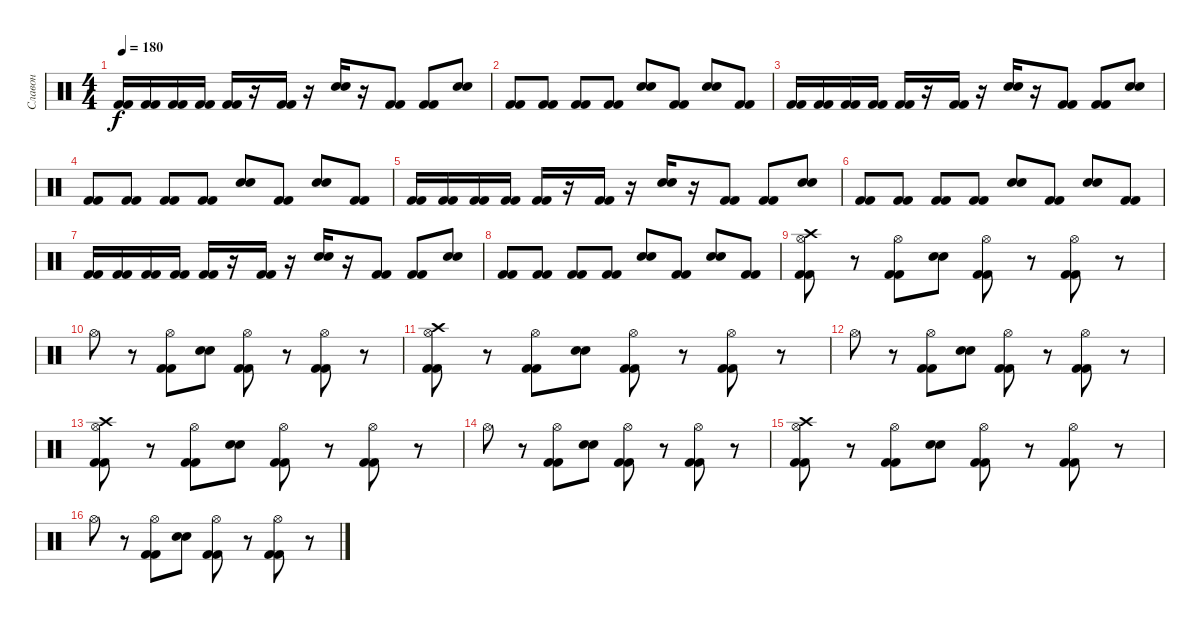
\track ("Славон" "Славон") {instrument percussion}
\staff {score}
\articulation defaults
\ts (4 4)
\tempo 180
\clef neutral
\ks c
("Kick (hit) 2" "Kick (hit) 2").16{dy f} ("Kick (hit) 2" "Kick (hit) 2").16 ("Kick (hit) 2" "Kick (hit) 2").16 ("Kick (hit) 2" "Kick (hit) 2").16 ("Kick (hit) 2" "Kick (hit) 2").16 r.16 ("Kick (hit) 2" "Kick (hit) 2").16 r.16 ("Electric Snare (hit)" "Electric Snare (hit)").16 r.16 ("Kick (hit) 2" "Kick (hit) 2").8 ("Kick (hit) 2" "Kick (hit) 2").8 ("Electric Snare (hit)" "Electric Snare (hit)").8 |
("Kick (hit) 2" "Kick (hit) 2").8 ("Kick (hit) 2" "Kick (hit) 2").8 ("Kick (hit) 2" "Kick (hit) 2").8 ("Kick (hit) 2" "Kick (hit) 2").8 ("Electric Snare (hit)" "Electric Snare (hit)").8 ("Kick (hit) 2" "Kick (hit) 2").8 ("Electric Snare (hit)" "Electric Snare (hit)").8 ("Kick (hit) 2" "Kick (hit) 2").8 |
("Kick (hit) 2" "Kick (hit) 2").16 ("Kick (hit) 2" "Kick (hit) 2").16 ("Kick (hit) 2" "Kick (hit) 2").16 ("Kick (hit) 2" "Kick (hit) 2").16 ("Kick (hit) 2" "Kick (hit) 2").16 r.16 ("Kick (hit) 2" "Kick (hit) 2").16 r.16 ("Electric Snare (hit)" "Electric Snare (hit)").16 r.16 ("Kick (hit) 2" "Kick (hit) 2").8 ("Kick (hit) 2" "Kick (hit) 2").8 ("Electric Snare (hit)" "Electric Snare (hit)").8 |
("Kick (hit) 2" "Kick (hit) 2").8 ("Kick (hit) 2" "Kick (hit) 2").8 ("Kick (hit) 2" "Kick (hit) 2").8 ("Kick (hit) 2" "Kick (hit) 2").8 ("Electric Snare (hit)" "Electric Snare (hit)").8 ("Kick (hit) 2" "Kick (hit) 2").8 ("Electric Snare (hit)" "Electric Snare (hit)").8 ("Kick (hit) 2" "Kick (hit) 2").8 |
("Kick (hit) 2" "Kick (hit) 2").16 ("Kick (hit) 2" "Kick (hit) 2").16 ("Kick (hit) 2" "Kick (hit) 2").16 ("Kick (hit) 2" "Kick (hit) 2").16 ("Kick (hit) 2" "Kick (hit) 2").16 r.16 ("Kick (hit) 2" "Kick (hit) 2").16 r.16 ("Electric Snare (hit)" "Electric Snare (hit)").16 r.16 ("Kick (hit) 2" "Kick (hit) 2").8 ("Kick (hit) 2" "Kick (hit) 2").8 ("Electric Snare (hit)" "Electric Snare (hit)").8 |
("Kick (hit) 2" "Kick (hit) 2").8 ("Kick (hit) 2" "Kick (hit) 2").8 ("Kick (hit) 2" "Kick (hit) 2").8 ("Kick (hit) 2" "Kick (hit) 2").8 ("Electric Snare (hit)" "Electric Snare (hit)").8 ("Kick (hit) 2" "Kick (hit) 2").8 ("Electric Snare (hit)" "Electric Snare (hit)").8 ("Kick (hit) 2" "Kick (hit) 2").8 |
("Kick (hit) 2" "Kick (hit) 2").16 ("Kick (hit) 2" "Kick (hit) 2").16 ("Kick (hit) 2" "Kick (hit) 2").16 ("Kick (hit) 2" "Kick (hit) 2").16 ("Kick (hit) 2" "Kick (hit) 2").16 r.16 ("Kick (hit) 2" "Kick (hit) 2").16 r.16 ("Electric Snare (hit)" "Electric Snare (hit)").16 r.16 ("Kick (hit) 2" "Kick (hit) 2").8 ("Kick (hit) 2" "Kick (hit) 2").8 ("Electric Snare (hit)" "Electric Snare (hit)").8 |
("Kick (hit) 2" "Kick (hit) 2").8 ("Kick (hit) 2" "Kick (hit) 2").8 ("Kick (hit) 2" "Kick (hit) 2").8 ("Kick (hit) 2" "Kick (hit) 2").8 ("Electric Snare (hit)" "Electric Snare (hit)").8 ("Kick (hit) 2" "Kick (hit) 2").8 ("Electric Snare (hit)" "Electric Snare (hit)").8 ("Kick (hit) 2" "Kick (hit) 2").8 |
\section ("" "")
("Hi-Hat (open)" "Kick (hit) 2" "Kick (hit) 2" "Crash high (hit)").8 r.8 ("Hi-Hat (open)" "Kick (hit) 2" "Kick (hit) 2").8 ("Electric Snare (hit)" "Electric Snare (hit)").8 ("Hi-Hat (open)" "Kick (hit) 2" "Kick (hit) 2").8 r.8 ("Hi-Hat (open)" "Kick (hit) 2" "Kick (hit) 2").8 r.8 |
"Hi-Hat (open)".8 r.8 ("Hi-Hat (open)" "Kick (hit) 2" "Kick (hit) 2").8 ("Electric Snare (hit)" "Electric Snare (hit)").8 ("Hi-Hat (open)" "Kick (hit) 2" "Kick (hit) 2").8 r.8 ("Hi-Hat (open)" "Kick (hit) 2" "Kick (hit) 2").8 r.8 |
("Hi-Hat (open)" "Kick (hit) 2" "Kick (hit) 2" "Crash high (hit)").8 r.8 ("Hi-Hat (open)" "Kick (hit) 2" "Kick (hit) 2").8 ("Electric Snare (hit)" "Electric Snare (hit)").8 ("Hi-Hat (open)" "Kick (hit) 2" "Kick (hit) 2").8 r.8 ("Hi-Hat (open)" "Kick (hit) 2" "Kick (hit) 2").8 r.8 |
"Hi-Hat (open)".8 r.8 ("Hi-Hat (open)" "Kick (hit) 2" "Kick (hit) 2").8 ("Electric Snare (hit)" "Electric Snare (hit)").8 ("Hi-Hat (open)" "Kick (hit) 2" "Kick (hit) 2").8 r.8 ("Hi-Hat (open)" "Kick (hit) 2" "Kick (hit) 2").8 r.8 |
("Hi-Hat (open)" "Kick (hit) 2" "Kick (hit) 2" "Crash high (hit)").8 r.8 ("Hi-Hat (open)" "Kick (hit) 2" "Kick (hit) 2").8 ("Electric Snare (hit)" "Electric Snare (hit)").8 ("Hi-Hat (open)" "Kick (hit) 2" "Kick (hit) 2").8 r.8 ("Hi-Hat (open)" "Kick (hit) 2" "Kick (hit) 2").8 r.8 |
"Hi-Hat (open)".8 r.8 ("Hi-Hat (open)" "Kick (hit) 2" "Kick (hit) 2").8 ("Electric Snare (hit)" "Electric Snare (hit)").8 ("Hi-Hat (open)" "Kick (hit) 2" "Kick (hit) 2").8 r.8 ("Hi-Hat (open)" "Kick (hit) 2" "Kick (hit) 2").8 r.8 |
("Hi-Hat (open)" "Kick (hit) 2" "Kick (hit) 2" "Crash high (hit)").8 r.8 ("Hi-Hat (open)" "Kick (hit) 2" "Kick (hit) 2").8 ("Electric Snare (hit)" "Electric Snare (hit)").8 ("Hi-Hat (open)" "Kick (hit) 2" "Kick (hit) 2").8 r.8 ("Hi-Hat (open)" "Kick (hit) 2" "Kick (hit) 2").8 r.8 |
"Hi-Hat (open)".8 r.8 ("Hi-Hat (open)" "Kick (hit) 2" "Kick (hit) 2").8 ("Electric Snare (hit)" "Electric Snare (hit)").8 ("Hi-Hat (open)" "Kick (hit) 2" "Kick (hit) 2").8 r.8 ("Hi-Hat (open)" "Kick (hit) 2" "Kick (hit) 2").8 r.8
